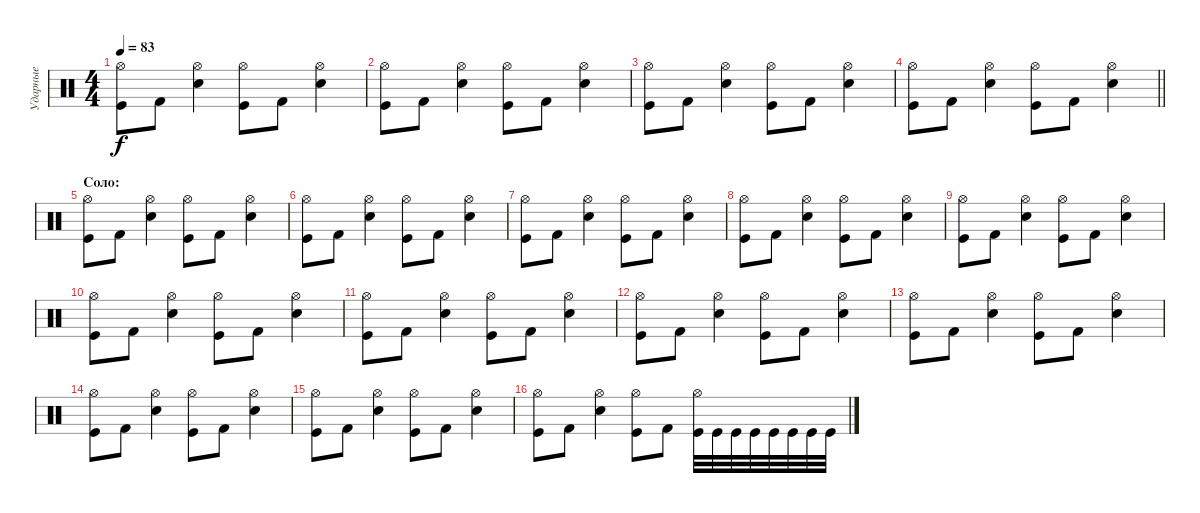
\track ("Ударные" "Ударные") {instrument percussion}
\staff {score}
\articulation defaults
\ts (4 4)
\tempo 83
\clef neutral
\ks c
("Hi-Hat (open)" "Kick (hit)").8{dy f} "Kick (hit) 2".8 ("Hi-Hat (open)" "Electric Snare (hit)").4 ("Hi-Hat (open)" "Kick (hit)").8 "Kick (hit) 2".8 ("Hi-Hat (open)" "Electric Snare (hit)").4 |
("Hi-Hat (open)" "Kick (hit)").8 "Kick (hit) 2".8 ("Hi-Hat (open)" "Electric Snare (hit)").4 ("Hi-Hat (open)" "Kick (hit)").8 "Kick (hit) 2".8 ("Hi-Hat (open)" "Electric Snare (hit)").4 |
("Hi-Hat (open)" "Kick (hit)").8 "Kick (hit) 2".8 ("Hi-Hat (open)" "Electric Snare (hit)").4 ("Hi-Hat (open)" "Kick (hit)").8 "Kick (hit) 2".8 ("Hi-Hat (open)" "Electric Snare (hit)").4 |
\barLineRight lightlight
("Hi-Hat (open)" "Kick (hit)").8 "Kick (hit) 2".8 ("Hi-Hat (open)" "Electric Snare (hit)").4 ("Hi-Hat (open)" "Kick (hit)").8 "Kick (hit) 2".8 ("Hi-Hat (open)" "Electric Snare (hit)").4 |
\section ("" "Соло:")
("Hi-Hat (open)" "Kick (hit)").8 "Kick (hit) 2".8 ("Hi-Hat (open)" "Electric Snare (hit)").4 ("Hi-Hat (open)" "Kick (hit)").8 "Kick (hit) 2".8 ("Hi-Hat (open)" "Electric Snare (hit)").4 |
("Hi-Hat (open)" "Kick (hit)").8 "Kick (hit) 2".8 ("Hi-Hat (open)" "Electric Snare (hit)").4 ("Hi-Hat (open)" "Kick (hit)").8 "Kick (hit) 2".8 ("Hi-Hat (open)" "Electric Snare (hit)").4 |
("Hi-Hat (open)" "Kick (hit)").8 "Kick (hit) 2".8 ("Hi-Hat (open)" "Electric Snare (hit)").4 ("Hi-Hat (open)" "Kick (hit)").8 "Kick (hit) 2".8 ("Hi-Hat (open)" "Electric Snare (hit)").4 |
("Hi-Hat (open)" "Kick (hit)").8 "Kick (hit) 2".8 ("Hi-Hat (open)" "Electric Snare (hit)").4 ("Hi-Hat (open)" "Kick (hit)").8 "Kick (hit) 2".8 ("Hi-Hat (open)" "Electric Snare (hit)").4 |
("Hi-Hat (open)" "Kick (hit)").8 "Kick (hit) 2".8 ("Hi-Hat (open)" "Electric Snare (hit)").4 ("Hi-Hat (open)" "Kick (hit)").8 "Kick (hit) 2".8 ("Hi-Hat (open)" "Electric Snare (hit)").4 |
("Hi-Hat (open)" "Kick (hit)").8 "Kick (hit) 2".8 ("Hi-Hat (open)" "Electric Snare (hit)").4 ("Hi-Hat (open)" "Kick (hit)").8 "Kick (hit) 2".8 ("Hi-Hat (open)" "Electric Snare (hit)").4 |
("Hi-Hat (open)" "Kick (hit)").8 "Kick (hit) 2".8 ("Hi-Hat (open)" "Electric Snare (hit)").4 ("Hi-Hat (open)" "Kick (hit)").8 "Kick (hit) 2".8 ("Hi-Hat (open)" "Electric Snare (hit)").4 |
("Hi-Hat (open)" "Kick (hit)").8 "Kick (hit) 2".8 ("Hi-Hat (open)" "Electric Snare (hit)").4 ("Hi-Hat (open)" "Kick (hit)").8 "Kick (hit) 2".8 ("Hi-Hat (open)" "Electric Snare (hit)").4 |
("Hi-Hat (open)" "Kick (hit)").8 "Kick (hit) 2".8 ("Hi-Hat (open)" "Electric Snare (hit)").4 ("Hi-Hat (open)" "Kick (hit)").8 "Kick (hit) 2".8 ("Hi-Hat (open)" "Electric Snare (hit)").4 |
("Hi-Hat (open)" "Kick (hit)").8 "Kick (hit) 2".8 ("Hi-Hat (open)" "Electric Snare (hit)").4 ("Hi-Hat (open)" "Kick (hit)").8 "Kick (hit) 2".8 ("Hi-Hat (open)" "Electric Snare (hit)").4 |
("Hi-Hat (open)" "Kick (hit)").8 "Kick (hit) 2".8 ("Hi-Hat (open)" "Electric Snare (hit)").4 ("Hi-Hat (open)" "Kick (hit)").8 "Kick (hit) 2".8 ("Hi-Hat (open)" "Electric Snare (hit)").4 |
("Hi-Hat (open)" "Kick (hit)").8 "Kick (hit) 2".8 ("Hi-Hat (open)" "Electric Snare (hit)").4 ("Hi-Hat (open)" "Kick (hit)").8 "Kick (hit) 2".8 ("Hi-Hat (open)" "Kick (hit)").32 "Kick (hit)".32 "Kick (hit)".32 "Kick (hit)".32 "Kick (hit)".32 "Kick (hit)".32 "Kick (hit)".32 "Kick (hit)".32
